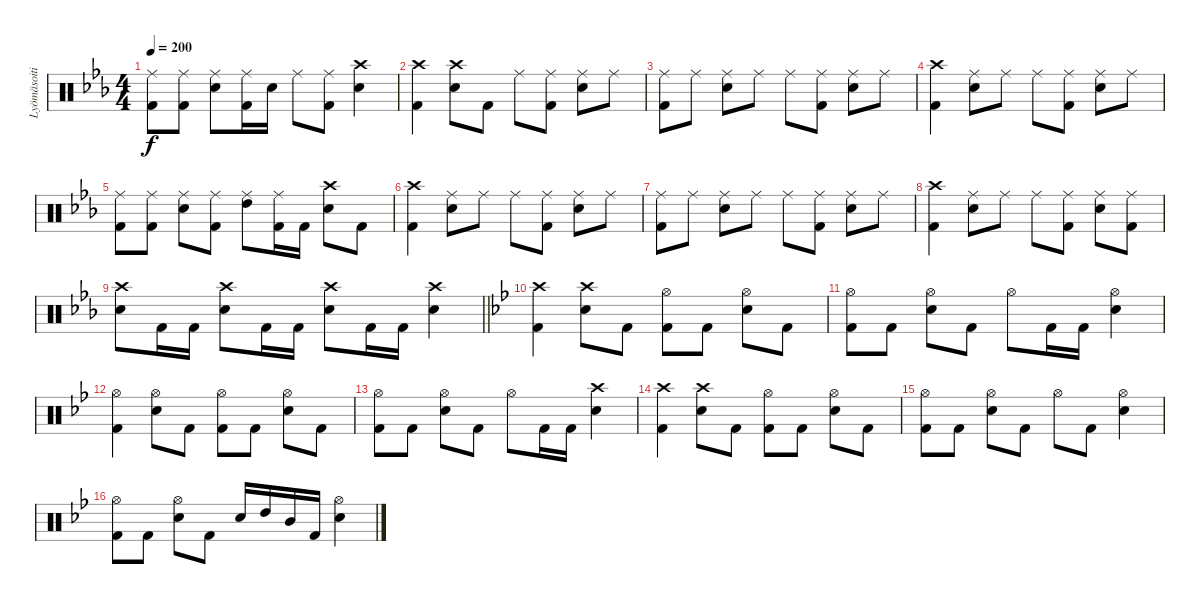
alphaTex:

\track ("Lyömäsoitin" "Lyömäsoiti") {instrument percussion}
\staff {score}
\articulation defaults
\ts (4 4)
\tempo 200
\clef neutral
\ks eb
("Ride (middle)" "Kick (hit) 2").8{dy f} ("Ride (middle)" "Kick (hit) 2").8 ("Ride (middle)" "Snare (hit) 2").8 ("Ride (middle)" "Kick (hit) 2").16 "Snare (hit) 2".16 "Ride (middle)".8 ("Ride (middle)" "Kick (hit) 2").8 ("Crash high (hit)" "Snare (hit) 2").4 |
("Crash high (hit)" "Kick (hit) 2").4 ("Crash high (hit)" "Snare (hit) 2").8 "Kick (hit) 2".8 "Ride (middle)".8 ("Ride (middle)" "Kick (hit) 2").8 ("Ride (middle)" "Snare (hit) 2").8 "Ride (middle)".8 |
("Ride (middle)" "Kick (hit) 2").8 "Ride (middle)".8 ("Ride (middle)" "Snare (hit) 2").8 "Ride (middle)".8 "Ride (middle)".8 ("Ride (middle)" "Kick (hit) 2").8 ("Ride (middle)" "Snare (hit) 2").8 "Ride (middle)".8 |
("Crash high (hit)" "Kick (hit) 2").4 ("Ride (middle)" "Snare (hit) 2").8 "Ride (middle)".8 "Ride (middle)".8 ("Ride (middle)" "Kick (hit) 2").8 ("Ride (middle)" "Snare (hit) 2").8 "Ride (middle)".8 |
("Ride (middle)" "Kick (hit) 2").8 ("Ride (middle)" "Kick (hit) 2").8 ("Ride (middle)" "Snare (hit) 2").8 ("Ride (middle)" "Kick (hit) 2").8 ("Ride (middle)" "High Tom (hit)").8 ("Ride (middle)" "Kick (hit) 2").16 "Kick (hit) 2".16 ("Crash high (hit)" "Snare (hit) 2").8 "Kick (hit) 2".8 |
("Crash high (hit)" "Kick (hit) 2").4 ("Ride (middle)" "Snare (hit) 2").8 "Ride (middle)".8 "Ride (middle)".8 ("Ride (middle)" "Kick (hit) 2").8 ("Ride (middle)" "Snare (hit) 2").8 "Ride (middle)".8 |
("Ride (middle)" "Kick (hit) 2").8 "Ride (middle)".8 ("Ride (middle)" "Snare (hit) 2").8 "Ride (middle)".8 "Ride (middle)".8 ("Ride (middle)" "Kick (hit) 2").8 ("Ride (middle)" "Snare (hit) 2").8 "Ride (middle)".8 |
("Crash high (hit)" "Kick (hit) 2").4 ("Ride (middle)" "Snare (hit) 2").8 "Ride (middle)".8 "Ride (middle)".8 ("Ride (middle)" "Kick (hit) 2").8 ("Ride (middle)" "Snare (hit) 2").8 ("Ride (middle)" "Kick (hit) 2").8 |
\barLineRight lightlight
("Crash high (hit)" "Snare (hit) 2").8 "Kick (hit) 2".16 "Kick (hit) 2".16 ("Crash high (hit)" "Snare (hit) 2").8 "Kick (hit) 2".16 "Kick (hit) 2".16 ("Crash high (hit)" "Snare (hit) 2").8 "Kick (hit) 2".16 "Kick (hit) 2".16 ("Crash high (hit)" "Snare (hit) 2").4 |
\ks bb
("Crash high (hit)" "Kick (hit) 2").4 ("Crash high (hit)" "Snare (hit) 2").8 "Kick (hit) 2".8 ("Hi-Hat (open)" "Kick (hit) 2").8 "Kick (hit) 2".8 ("Hi-Hat (open)" "Snare (hit) 2").8 "Kick (hit) 2".8 |
("Hi-Hat (open)" "Kick (hit) 2").8 "Kick (hit) 2".8 ("Hi-Hat (open)" "Snare (hit) 2").8 "Kick (hit) 2".8 "Hi-Hat (open)".8 "Kick (hit) 2".16 "Kick (hit) 2".16 ("Hi-Hat (open)" "Snare (hit) 2").4 |
("Hi-Hat (open)" "Kick (hit) 2").4 ("Hi-Hat (open)" "Snare (hit) 2").8 "Kick (hit) 2".8 ("Hi-Hat (open)" "Kick (hit) 2").8 "Kick (hit) 2".8 ("Hi-Hat (open)" "Snare (hit) 2").8 "Kick (hit) 2".8 |
("Hi-Hat (open)" "Kick (hit) 2").8 "Kick (hit) 2".8 ("Hi-Hat (open)" "Snare (hit) 2").8 "Kick (hit) 2".8 "Hi-Hat (open)".8 "Kick (hit) 2".16 "Kick (hit) 2".16 ("Crash high (hit)" "Snare (hit) 2").4 |
("Crash high (hit)" "Kick (hit) 2").4 ("Crash high (hit)" "Snare (hit) 2").8 "Kick (hit) 2".8 ("Hi-Hat (open)" "Kick (hit) 2").8 "Kick (hit) 2".8 ("Hi-Hat (open)" "Snare (hit) 2").8 "Kick (hit) 2".8 |
("Hi-Hat (open)" "Kick (hit) 2").8 "Kick (hit) 2".8 ("Hi-Hat (open)" "Snare (hit) 2").8 "Kick (hit) 2".8 "Hi-Hat (open)".8 "Kick (hit) 2".8 ("Hi-Hat (open)" "Snare (hit) 2").4 |
("Hi-Hat (open)" "Kick (hit) 2").8 "Kick (hit) 2".8 ("Hi-Hat (open)" "Snare (hit) 2").8 "Kick (hit) 2".8 "Snare (hit) 2".16 "High Tom (hit)".16 "Mid Tom (hit)".16 "Kick (hit) 2".16 ("Hi-Hat (open)" "Snare (hit) 2").4
